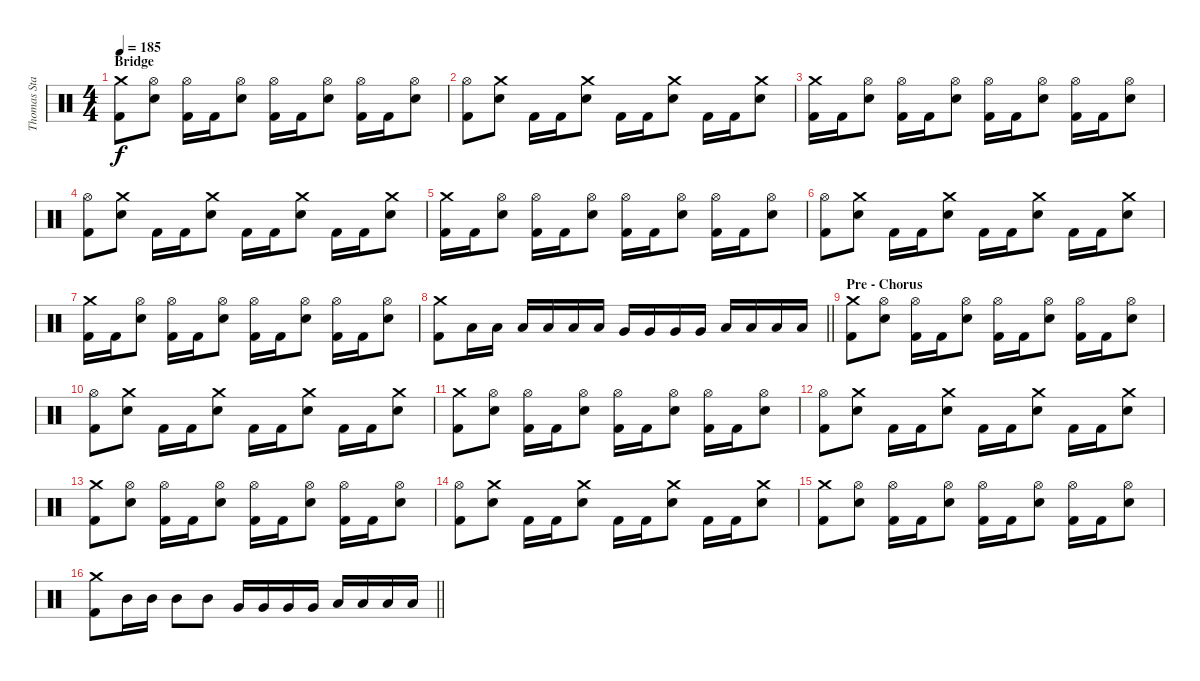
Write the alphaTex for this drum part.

\track ("Thomas Stauch" "Thomas Sta") {instrument percussion}
\staff {score}
\articulation defaults
\ts (4 4)
\section ("" "Bridge")
\tempo 185
\clef neutral
\ks c
("Crash medium (hit)" "Kick (hit) 2").8{dy f} ("Hi-Hat (open)" "Electric Snare (hit)").8 ("Hi-Hat (open)" "Kick (hit) 2").16 "Kick (hit) 2".16 ("Hi-Hat (open)" "Electric Snare (hit)").8 ("Hi-Hat (open)" "Kick (hit) 2").16 "Kick (hit) 2".16 ("Hi-Hat (open)" "Electric Snare (hit)").8 ("Hi-Hat (open)" "Kick (hit) 2").16 "Kick (hit) 2".16 ("Hi-Hat (open)" "Electric Snare (hit)").8 |
("Hi-Hat (open)" "Kick (hit) 2").8 ("Crash medium (hit)" "Electric Snare (hit)").8 "Kick (hit) 2".16 "Kick (hit) 2".16 ("Crash medium (hit)" "Electric Snare (hit)").8 "Kick (hit) 2".16 "Kick (hit) 2".16 ("Crash medium (hit)" "Electric Snare (hit)").8 "Kick (hit) 2".16 "Kick (hit) 2".16 ("Crash medium (hit)" "Electric Snare (hit)").8 |
("Crash medium (hit)" "Kick (hit) 2").16 "Kick (hit) 2".16 ("Hi-Hat (open)" "Electric Snare (hit)").8 ("Hi-Hat (open)" "Kick (hit) 2").16 "Kick (hit) 2".16 ("Hi-Hat (open)" "Electric Snare (hit)").8 ("Hi-Hat (open)" "Kick (hit) 2").16 "Kick (hit) 2".16 ("Hi-Hat (open)" "Electric Snare (hit)").8 ("Hi-Hat (open)" "Kick (hit) 2").16 "Kick (hit) 2".16 ("Hi-Hat (open)" "Electric Snare (hit)").8 |
("Hi-Hat (open)" "Kick (hit) 2").8 ("Crash medium (hit)" "Electric Snare (hit)").8 "Kick (hit) 2".16 "Kick (hit) 2".16 ("Crash medium (hit)" "Electric Snare (hit)").8 "Kick (hit) 2".16 "Kick (hit) 2".16 ("Crash medium (hit)" "Electric Snare (hit)").8 "Kick (hit) 2".16 "Kick (hit) 2".16 ("Crash medium (hit)" "Electric Snare (hit)").8 |
("Crash medium (hit)" "Kick (hit) 2").16 "Kick (hit) 2".16 ("Hi-Hat (open)" "Electric Snare (hit)").8 ("Hi-Hat (open)" "Kick (hit) 2").16 "Kick (hit) 2".16 ("Hi-Hat (open)" "Electric Snare (hit)").8 ("Hi-Hat (open)" "Kick (hit) 2").16 "Kick (hit) 2".16 ("Hi-Hat (open)" "Electric Snare (hit)").8 ("Hi-Hat (open)" "Kick (hit) 2").16 "Kick (hit) 2".16 ("Hi-Hat (open)" "Electric Snare (hit)").8 |
("Hi-Hat (open)" "Kick (hit) 2").8 ("Crash medium (hit)" "Electric Snare (hit)").8 "Kick (hit) 2".16 "Kick (hit) 2".16 ("Crash medium (hit)" "Electric Snare (hit)").8 "Kick (hit) 2".16 "Kick (hit) 2".16 ("Crash medium (hit)" "Electric Snare (hit)").8 "Kick (hit) 2".16 "Kick (hit) 2".16 ("Crash medium (hit)" "Electric Snare (hit)").8 |
("Crash medium (hit)" "Kick (hit) 2").16 "Kick (hit) 2".16 ("Hi-Hat (open)" "Electric Snare (hit)").8 ("Hi-Hat (open)" "Kick (hit) 2").16 "Kick (hit) 2".16 ("Hi-Hat (open)" "Electric Snare (hit)").8 ("Hi-Hat (open)" "Kick (hit) 2").16 "Kick (hit) 2".16 ("Hi-Hat (open)" "Electric Snare (hit)").8 ("Hi-Hat (open)" "Kick (hit) 2").16 "Kick (hit) 2".16 ("Hi-Hat (open)" "Electric Snare (hit)").8 |
\barLineRight lightlight
("Crash medium (hit)" "Kick (hit) 2").8 "Low Tom (hit)".16 "Low Tom (hit)".16 "Low Tom (hit)".16 "Low Tom (hit)".16 "Low Tom (hit)".16 "Low Tom (hit)".16 "Very Low Tom (hit)".16 "Very Low Tom (hit)".16 "Very Low Tom (hit)".16 "Very Low Tom (hit)".16 "Low Floor Tom (hit)".16 "Low Floor Tom (hit)".16 "Low Floor Tom (hit)".16 "Low Floor Tom (hit)".16 |
\section ("" "Pre - Chorus")
("Crash medium (hit)" "Kick (hit) 2").8 ("Hi-Hat (open)" "Electric Snare (hit)").8 ("Hi-Hat (open)" "Kick (hit) 2").16 "Kick (hit) 2".16 ("Hi-Hat (open)" "Electric Snare (hit)").8 ("Hi-Hat (open)" "Kick (hit) 2").16 "Kick (hit) 2".16 ("Hi-Hat (open)" "Electric Snare (hit)").8 ("Hi-Hat (open)" "Kick (hit) 2").16 "Kick (hit) 2".16 ("Hi-Hat (open)" "Electric Snare (hit)").8 |
("Hi-Hat (open)" "Kick (hit) 2").8 ("Crash medium (hit)" "Electric Snare (hit)").8 "Kick (hit) 2".16 "Kick (hit) 2".16 ("Crash medium (hit)" "Electric Snare (hit)").8 "Kick (hit) 2".16 "Kick (hit) 2".16 ("Crash medium (hit)" "Electric Snare (hit)").8 "Kick (hit) 2".16 "Kick (hit) 2".16 ("Crash medium (hit)" "Electric Snare (hit)").8 |
("Crash medium (hit)" "Kick (hit) 2").8 ("Hi-Hat (open)" "Electric Snare (hit)").8 ("Hi-Hat (open)" "Kick (hit) 2").16 "Kick (hit) 2".16 ("Hi-Hat (open)" "Electric Snare (hit)").8 ("Hi-Hat (open)" "Kick (hit) 2").16 "Kick (hit) 2".16 ("Hi-Hat (open)" "Electric Snare (hit)").8 ("Hi-Hat (open)" "Kick (hit) 2").16 "Kick (hit) 2".16 ("Hi-Hat (open)" "Electric Snare (hit)").8 |
("Hi-Hat (open)" "Kick (hit) 2").8 ("Crash medium (hit)" "Electric Snare (hit)").8 "Kick (hit) 2".16 "Kick (hit) 2".16 ("Crash medium (hit)" "Electric Snare (hit)").8 "Kick (hit) 2".16 "Kick (hit) 2".16 ("Crash medium (hit)" "Electric Snare (hit)").8 "Kick (hit) 2".16 "Kick (hit) 2".16 ("Crash medium (hit)" "Electric Snare (hit)").8 |
("Crash medium (hit)" "Kick (hit) 2").8 ("Hi-Hat (open)" "Electric Snare (hit)").8 ("Hi-Hat (open)" "Kick (hit) 2").16 "Kick (hit) 2".16 ("Hi-Hat (open)" "Electric Snare (hit)").8 ("Hi-Hat (open)" "Kick (hit) 2").16 "Kick (hit) 2".16 ("Hi-Hat (open)" "Electric Snare (hit)").8 ("Hi-Hat (open)" "Kick (hit) 2").16 "Kick (hit) 2".16 ("Hi-Hat (open)" "Electric Snare (hit)").8 |
("Hi-Hat (open)" "Kick (hit) 2").8 ("Crash medium (hit)" "Electric Snare (hit)").8 "Kick (hit) 2".16 "Kick (hit) 2".16 ("Crash medium (hit)" "Electric Snare (hit)").8 "Kick (hit) 2".16 "Kick (hit) 2".16 ("Crash medium (hit)" "Electric Snare (hit)").8 "Kick (hit) 2".16 "Kick (hit) 2".16 ("Crash medium (hit)" "Electric Snare (hit)").8 |
("Crash medium (hit)" "Kick (hit) 2").8 ("Hi-Hat (open)" "Electric Snare (hit)").8 ("Hi-Hat (open)" "Kick (hit) 2").16 "Kick (hit) 2".16 ("Hi-Hat (open)" "Electric Snare (hit)").8 ("Hi-Hat (open)" "Kick (hit) 2").16 "Kick (hit) 2".16 ("Hi-Hat (open)" "Electric Snare (hit)").8 ("Hi-Hat (open)" "Kick (hit) 2").16 "Kick (hit) 2".16 ("Hi-Hat (open)" "Electric Snare (hit)").8 |
\barLineRight lightlight
("Crash medium (hit)" "Kick (hit) 2").8 "Mid Tom (hit)".16 "Mid Tom (hit)".16 "Mid Tom (hit)".8 "Mid Tom (hit)".8 "Very Low Tom (hit)".16 "Very Low Tom (hit)".16 "Very Low Tom (hit)".16 "Very Low Tom (hit)".16 "Low Floor Tom (hit)".16 "Low Floor Tom (hit)".16 "Low Floor Tom (hit)".16 "Low Floor Tom (hit)".16
